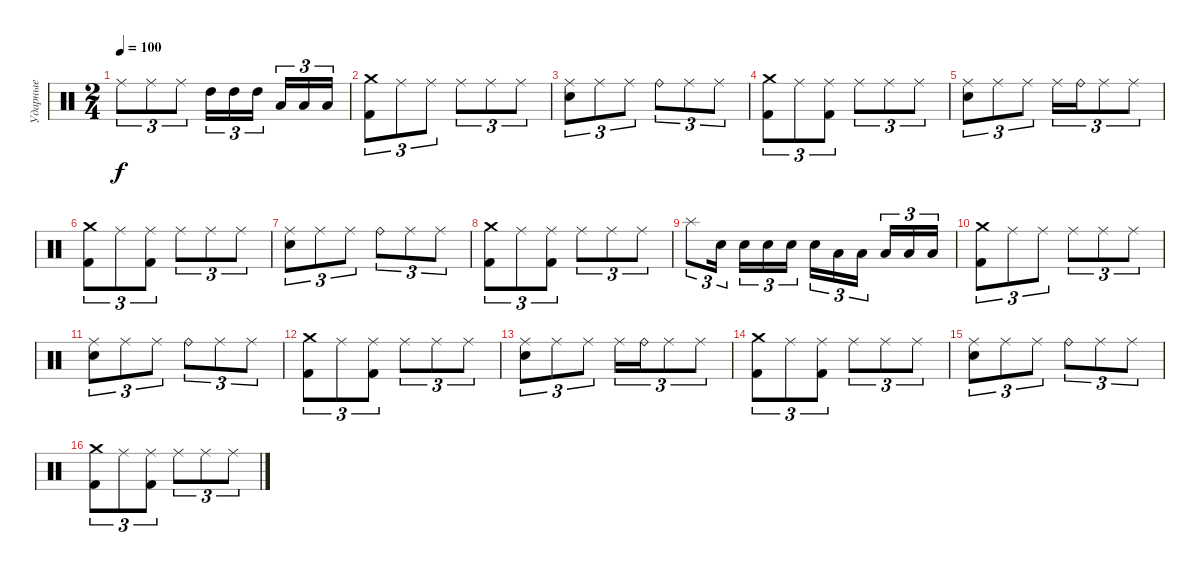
\track ("Ударные" "Ударные") {instrument percussion}
\staff {score}
\articulation defaults
\ts (2 4)
\tempo 100
\clef neutral
\ks c "Ride (middle)".8{tu (3 2) dy f} "Ride (middle)".8{tu (3 2)} "Ride (middle)".8{tu (3 2)} "High Tom (hit)".16{tu (3 2)} "High Tom (hit)".16{tu (3 2)} "High Tom (hit)".16{tu (3 2) beam splitsecondary} "Low Tom (hit)".16{tu (3 2)} "Low Tom (hit)".16{tu (3 2)} "Low Tom (hit)".16{tu (3 2)}
|
("Crash medium (hit)" "Kick (hit) 2").8{tu (3 2)} "Ride (middle)".8{tu (3 2)} "Ride (middle)".8{tu (3 2)} "Ride (middle)".8{tu (3 2)} "Ride (middle)".8{tu (3 2)} "Ride (middle)".8{tu (3 2)} |
("Ride (middle)" "Electric Snare (hit)").8{tu (3 2)} "Ride (middle)".8{tu (3 2)} "Ride (middle)".8{tu (3 2)} "Ride (bell)".8{tu (3 2)} "Ride (middle)".8{tu (3 2)} "Ride (middle)".8{tu (3 2)} |
("Crash medium (hit)" "Kick (hit) 2").8{tu (3 2)} "Ride (middle)".8{tu (3 2)} ("Ride (middle)" "Kick (hit) 2").8{tu (3 2)} "Ride (middle)".8{tu (3 2)} "Ride (middle)".8{tu (3 2)} "Ride (middle)".8{tu (3 2)} |
("Ride (middle)" "Electric Snare (hit)").8{tu (3 2)} "Ride (middle)".8{tu (3 2)} "Ride (middle)".8{tu (3 2)} "Ride (middle)".16{tu (3 2)} "Ride (bell)".16{tu (3 2)} "Ride (middle)".8{tu (3 2)} "Ride (middle)".8{tu (3 2)} |
("Crash medium (hit)" "Kick (hit) 2").8{tu (3 2)} "Ride (middle)".8{tu (3 2)} ("Ride (middle)" "Kick (hit) 2").8{tu (3 2)} "Ride (middle)".8{tu (3 2)} "Ride (middle)".8{tu (3 2)} "Ride (middle)".8{tu (3 2)} |
("Ride (middle)" "Electric Snare (hit)").8{tu (3 2)} "Ride (middle)".8{tu (3 2)} "Ride (middle)".8{tu (3 2)} "Ride (bell)".8{tu (3 2)} "Ride (middle)".8{tu (3 2)} "Ride (middle)".8{tu (3 2)} |
("Crash medium (hit)" "Kick (hit) 2").8{tu (3 2)} "Ride (middle)".8{tu (3 2)} ("Ride (middle)" "Kick (hit) 2").8{tu (3 2)} "Ride (middle)".8{tu (3 2)} "Ride (middle)".8{tu (3 2)} "Ride (middle)".8{tu (3 2)} |
"Splash (hit)".8{tu (3 2)} "Electric Snare (hit)".16{tu (3 2) beam splitsecondary} "Electric Snare (hit)".16{tu (3 2)} "Electric Snare (hit)".16{tu (3 2)} "Electric Snare (hit)".16{tu (3 2)} "Electric Snare (hit)".16{tu (3 2)} "Low Tom (hit)".16{tu (3 2)} "Low Tom (hit)".16{tu (3 2) beam splitsecondary} "Low Tom (hit)".16{tu (3 2)} "Low Floor Tom (hit)".16{tu (3 2)} "Low Floor Tom (hit)".16{tu (3 2)} |
("Crash medium (hit)" "Kick (hit) 2").8{tu (3 2)} "Ride (middle)".8{tu (3 2)} "Ride (middle)".8{tu (3 2)} "Ride (middle)".8{tu (3 2)} "Ride (middle)".8{tu (3 2)} "Ride (middle)".8{tu (3 2)} |
("Ride (middle)" "Electric Snare (hit)").8{tu (3 2)} "Ride (middle)".8{tu (3 2)} "Ride (middle)".8{tu (3 2)} "Ride (bell)".8{tu (3 2)} "Ride (middle)".8{tu (3 2)} "Ride (middle)".8{tu (3 2)} |
("Crash medium (hit)" "Kick (hit) 2").8{tu (3 2)} "Ride (middle)".8{tu (3 2)} ("Ride (middle)" "Kick (hit) 2").8{tu (3 2)} "Ride (middle)".8{tu (3 2)} "Ride (middle)".8{tu (3 2)} "Ride (middle)".8{tu (3 2)} |
("Ride (middle)" "Electric Snare (hit)").8{tu (3 2)} "Ride (middle)".8{tu (3 2)} "Ride (middle)".8{tu (3 2)} "Ride (middle)".16{tu (3 2)} "Ride (bell)".16{tu (3 2)} "Ride (middle)".8{tu (3 2)} "Ride (middle)".8{tu (3 2)} |
("Crash medium (hit)" "Kick (hit) 2").8{tu (3 2)} "Ride (middle)".8{tu (3 2)} ("Ride (middle)" "Kick (hit) 2").8{tu (3 2)} "Ride (middle)".8{tu (3 2)} "Ride (middle)".8{tu (3 2)} "Ride (middle)".8{tu (3 2)} |
("Ride (middle)" "Electric Snare (hit)").8{tu (3 2)} "Ride (middle)".8{tu (3 2)} "Ride (middle)".8{tu (3 2)} "Ride (bell)".8{tu (3 2)} "Ride (middle)".8{tu (3 2)} "Ride (middle)".8{tu (3 2)} |
("Crash medium (hit)" "Kick (hit) 2").8{tu (3 2)} "Ride (middle)".8{tu (3 2)} ("Ride (middle)" "Kick (hit) 2").8{tu (3 2)} "Ride (middle)".8{tu (3 2)} "Ride (middle)".8{tu (3 2)} "Ride (middle)".8{tu (3 2)}
